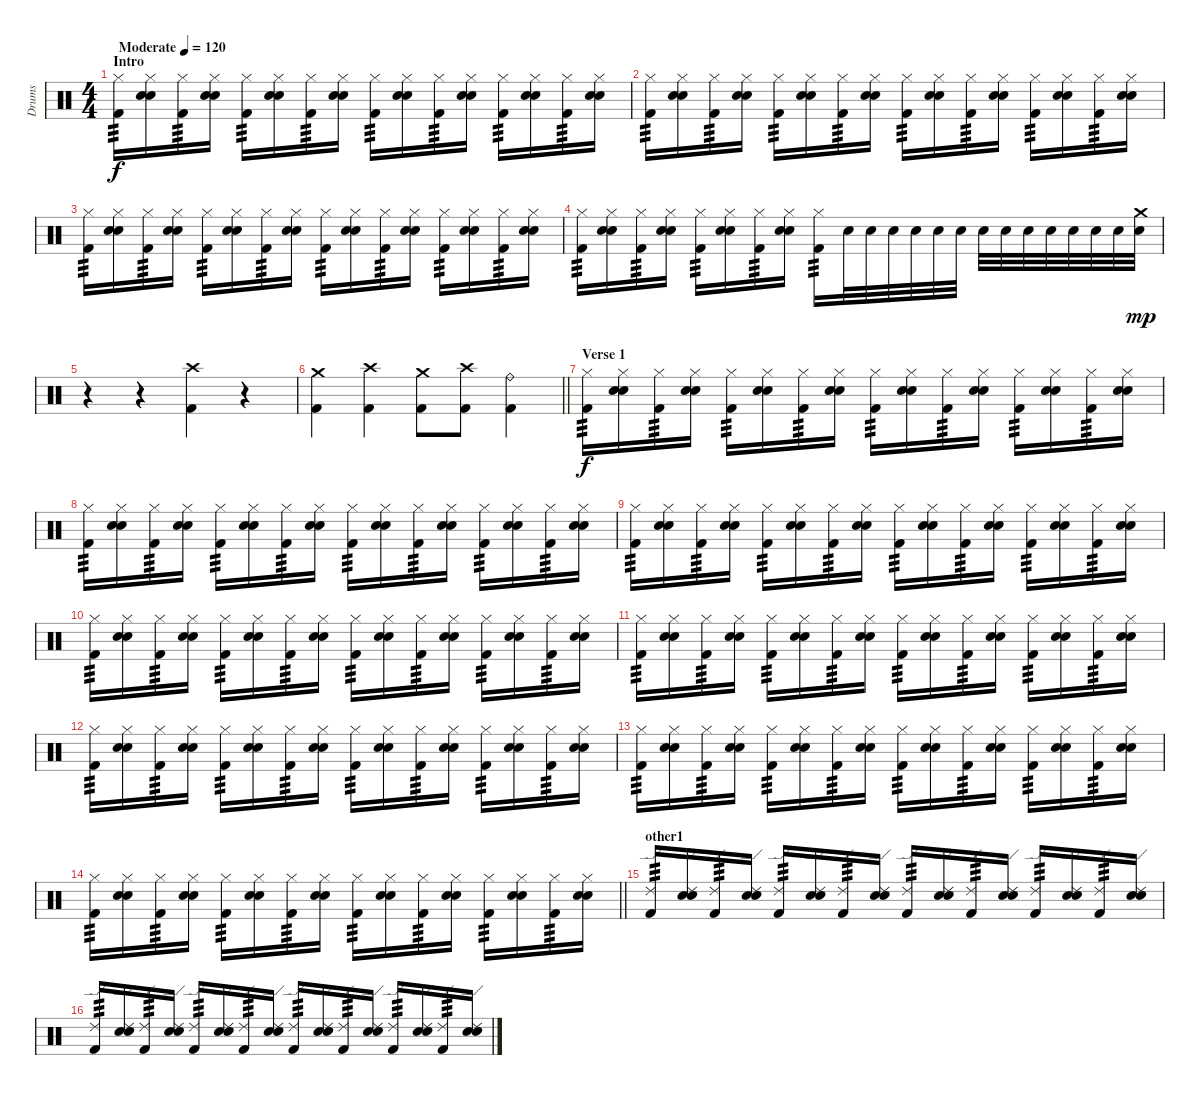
\track ("Drums" "Drums") {instrument percussion}
\staff {score}
\articulation defaults
\ts (4 4)
\section ("" "Intro")
\tempo (120 "Moderate")
\clef neutral
\ks c
("Hi-Hat (closed)" "Kick (hit) 2").16{tp 3 dy f} ("Hi-Hat (closed)" "Snare (hit) 2" "Electric Snare (hit)").16 ("Hi-Hat (closed)" "Kick (hit) 2").16{tp 3} ("Hi-Hat (closed)" "Snare (hit) 2" "Electric Snare (hit)").16 ("Hi-Hat (closed)" "Kick (hit) 2").16{tp 3} ("Hi-Hat (closed)" "Snare (hit) 2" "Electric Snare (hit)").16 ("Hi-Hat (closed)" "Kick (hit) 2").16{tp 3} ("Hi-Hat (closed)" "Snare (hit) 2" "Electric Snare (hit)").16 ("Hi-Hat (closed)" "Kick (hit) 2").16{tp 3} ("Hi-Hat (closed)" "Snare (hit) 2" "Electric Snare (hit)").16 ("Hi-Hat (closed)" "Kick (hit) 2").16{tp 3} ("Hi-Hat (closed)" "Snare (hit) 2" "Electric Snare (hit)").16 ("Hi-Hat (closed)" "Kick (hit) 2").16{tp 3} ("Hi-Hat (closed)" "Snare (hit) 2" "Electric Snare (hit)").16 ("Hi-Hat (closed)" "Kick (hit) 2").16{tp 3} ("Hi-Hat (closed)" "Snare (hit) 2" "Electric Snare (hit)").16 |
("Hi-Hat (closed)" "Kick (hit) 2").16{tp 3} ("Hi-Hat (closed)" "Snare (hit) 2" "Electric Snare (hit)").16 ("Hi-Hat (closed)" "Kick (hit) 2").16{tp 3} ("Hi-Hat (closed)" "Snare (hit) 2" "Electric Snare (hit)").16 ("Hi-Hat (closed)" "Kick (hit) 2").16{tp 3} ("Hi-Hat (closed)" "Snare (hit) 2" "Electric Snare (hit)").16 ("Hi-Hat (closed)" "Kick (hit) 2").16{tp 3} ("Hi-Hat (closed)" "Snare (hit) 2" "Electric Snare (hit)").16 ("Hi-Hat (closed)" "Kick (hit) 2").16{tp 3} ("Hi-Hat (closed)" "Snare (hit) 2" "Electric Snare (hit)").16 ("Hi-Hat (closed)" "Kick (hit) 2").16{tp 3} ("Hi-Hat (closed)" "Snare (hit) 2" "Electric Snare (hit)").16 ("Hi-Hat (closed)" "Kick (hit) 2").16{tp 3} ("Hi-Hat (closed)" "Snare (hit) 2" "Electric Snare (hit)").16 ("Hi-Hat (closed)" "Kick (hit) 2").16{tp 3} ("Hi-Hat (closed)" "Snare (hit) 2" "Electric Snare (hit)").16 |
("Hi-Hat (closed)" "Kick (hit) 2").16{tp 3} ("Hi-Hat (closed)" "Snare (hit) 2" "Electric Snare (hit)").16 ("Hi-Hat (closed)" "Kick (hit) 2").16{tp 3} ("Hi-Hat (closed)" "Snare (hit) 2" "Electric Snare (hit)").16 ("Hi-Hat (closed)" "Kick (hit) 2").16{tp 3} ("Hi-Hat (closed)" "Snare (hit) 2" "Electric Snare (hit)").16 ("Hi-Hat (closed)" "Kick (hit) 2").16{tp 3} ("Hi-Hat (closed)" "Snare (hit) 2" "Electric Snare (hit)").16 ("Hi-Hat (closed)" "Kick (hit) 2").16{tp 3} ("Hi-Hat (closed)" "Snare (hit) 2" "Electric Snare (hit)").16 ("Hi-Hat (closed)" "Kick (hit) 2").16{tp 3} ("Hi-Hat (closed)" "Snare (hit) 2" "Electric Snare (hit)").16 ("Hi-Hat (closed)" "Kick (hit) 2").16{tp 3} ("Hi-Hat (closed)" "Snare (hit) 2" "Electric Snare (hit)").16 ("Hi-Hat (closed)" "Kick (hit) 2").16{tp 3} ("Hi-Hat (closed)" "Snare (hit) 2" "Electric Snare (hit)").16 |
("Hi-Hat (closed)" "Kick (hit) 2").16{tp 3} ("Hi-Hat (closed)" "Snare (hit) 2" "Electric Snare (hit)").16 ("Hi-Hat (closed)" "Kick (hit) 2").16{tp 3} ("Hi-Hat (closed)" "Snare (hit) 2" "Electric Snare (hit)").16 ("Hi-Hat (closed)" "Kick (hit) 2").16{tp 3} ("Hi-Hat (closed)" "Snare (hit) 2" "Electric Snare (hit)").16 ("Hi-Hat (closed)" "Kick (hit) 2").16{tp 3} ("Hi-Hat (closed)" "Snare (hit) 2" "Electric Snare (hit)").16 ("Hi-Hat (closed)" "Kick (hit) 2").16{tp 3} "Electric Snare (hit)".32 "Electric Snare (hit)".32 "Electric Snare (hit)".32 "Electric Snare (hit)".32 "Electric Snare (hit)".32 "Electric Snare (hit)".32 "Electric Snare (hit)".32 "Electric Snare (hit)".32 "Electric Snare (hit)".32 "Electric Snare (hit)".32 "Electric Snare (hit)".32 "Electric Snare (hit)".32 "Electric Snare (hit)".32 ("Crash medium (hit)" "Electric Snare (hit)").32{dy mp} |
r.4 r.4 ("Crash high (hit)" "Kick (hit) 2").4 r.4 |
\barLineRight lightlight
("Crash medium (hit)" "Kick (hit) 2").4 ("Crash high (hit)" "Kick (hit) 2").4 ("Crash medium (hit)" "Kick (hit) 2").8 ("Crash high (hit)" "Kick (hit) 2").8 ("Ride (bell)" "Kick (hit) 2").4 |
\section ("" "Verse 1")
("Hi-Hat (closed)" "Kick (hit) 2").16{tp 3 dy f} ("Hi-Hat (closed)" "Snare (hit) 2" "Electric Snare (hit)").16 ("Hi-Hat (closed)" "Kick (hit) 2").16{tp 3} ("Hi-Hat (closed)" "Snare (hit) 2" "Electric Snare (hit)").16 ("Hi-Hat (closed)" "Kick (hit) 2").16{tp 3} ("Hi-Hat (closed)" "Snare (hit) 2" "Electric Snare (hit)").16 ("Hi-Hat (closed)" "Kick (hit) 2").16{tp 3} ("Hi-Hat (closed)" "Snare (hit) 2" "Electric Snare (hit)").16 ("Hi-Hat (closed)" "Kick (hit) 2").16{tp 3} ("Hi-Hat (closed)" "Snare (hit) 2" "Electric Snare (hit)").16 ("Hi-Hat (closed)" "Kick (hit) 2").16{tp 3} ("Hi-Hat (closed)" "Snare (hit) 2" "Electric Snare (hit)").16 ("Hi-Hat (closed)" "Kick (hit) 2").16{tp 3} ("Hi-Hat (closed)" "Snare (hit) 2" "Electric Snare (hit)").16 ("Hi-Hat (closed)" "Kick (hit) 2").16{tp 3} ("Hi-Hat (closed)" "Snare (hit) 2" "Electric Snare (hit)").16 |
("Hi-Hat (closed)" "Kick (hit) 2").16{tp 3} ("Hi-Hat (closed)" "Snare (hit) 2" "Electric Snare (hit)").16 ("Hi-Hat (closed)" "Kick (hit) 2").16{tp 3} ("Hi-Hat (closed)" "Snare (hit) 2" "Electric Snare (hit)").16 ("Hi-Hat (closed)" "Kick (hit) 2").16{tp 3} ("Hi-Hat (closed)" "Snare (hit) 2" "Electric Snare (hit)").16 ("Hi-Hat (closed)" "Kick (hit) 2").16{tp 3} ("Hi-Hat (closed)" "Snare (hit) 2" "Electric Snare (hit)").16 ("Hi-Hat (closed)" "Kick (hit) 2").16{tp 3} ("Hi-Hat (closed)" "Snare (hit) 2" "Electric Snare (hit)").16 ("Hi-Hat (closed)" "Kick (hit) 2").16{tp 3} ("Hi-Hat (closed)" "Snare (hit) 2" "Electric Snare (hit)").16 ("Hi-Hat (closed)" "Kick (hit) 2").16{tp 3} ("Hi-Hat (closed)" "Snare (hit) 2" "Electric Snare (hit)").16 ("Hi-Hat (closed)" "Kick (hit) 2").16{tp 3} ("Hi-Hat (closed)" "Snare (hit) 2" "Electric Snare (hit)").16 |
("Hi-Hat (closed)" "Kick (hit) 2").16{tp 3} ("Hi-Hat (closed)" "Snare (hit) 2" "Electric Snare (hit)").16 ("Hi-Hat (closed)" "Kick (hit) 2").16{tp 3} ("Hi-Hat (closed)" "Snare (hit) 2" "Electric Snare (hit)").16 ("Hi-Hat (closed)" "Kick (hit) 2").16{tp 3} ("Hi-Hat (closed)" "Snare (hit) 2" "Electric Snare (hit)").16 ("Hi-Hat (closed)" "Kick (hit) 2").16{tp 3} ("Hi-Hat (closed)" "Snare (hit) 2" "Electric Snare (hit)").16 ("Hi-Hat (closed)" "Kick (hit) 2").16{tp 3} ("Hi-Hat (closed)" "Snare (hit) 2" "Electric Snare (hit)").16 ("Hi-Hat (closed)" "Kick (hit) 2").16{tp 3} ("Hi-Hat (closed)" "Snare (hit) 2" "Electric Snare (hit)").16 ("Hi-Hat (closed)" "Kick (hit) 2").16{tp 3} ("Hi-Hat (closed)" "Snare (hit) 2" "Electric Snare (hit)").16 ("Hi-Hat (closed)" "Kick (hit) 2").16{tp 3} ("Hi-Hat (closed)" "Snare (hit) 2" "Electric Snare (hit)").16 |
("Hi-Hat (closed)" "Kick (hit) 2").16{tp 3} ("Hi-Hat (closed)" "Snare (hit) 2" "Electric Snare (hit)").16 ("Hi-Hat (closed)" "Kick (hit) 2").16{tp 3} ("Hi-Hat (closed)" "Snare (hit) 2" "Electric Snare (hit)").16 ("Hi-Hat (closed)" "Kick (hit) 2").16{tp 3} ("Hi-Hat (closed)" "Snare (hit) 2" "Electric Snare (hit)").16 ("Hi-Hat (closed)" "Kick (hit) 2").16{tp 3} ("Hi-Hat (closed)" "Snare (hit) 2" "Electric Snare (hit)").16 ("Hi-Hat (closed)" "Kick (hit) 2").16{tp 3} ("Hi-Hat (closed)" "Snare (hit) 2" "Electric Snare (hit)").16 ("Hi-Hat (closed)" "Kick (hit) 2").16{tp 3} ("Hi-Hat (closed)" "Snare (hit) 2" "Electric Snare (hit)").16 ("Hi-Hat (closed)" "Kick (hit) 2").16{tp 3} ("Hi-Hat (closed)" "Snare (hit) 2" "Electric Snare (hit)").16 ("Hi-Hat (closed)" "Kick (hit) 2").16{tp 3} ("Hi-Hat (closed)" "Snare (hit) 2" "Electric Snare (hit)").16 |
("Hi-Hat (closed)" "Kick (hit) 2").16{tp 3} ("Hi-Hat (closed)" "Snare (hit) 2" "Electric Snare (hit)").16 ("Hi-Hat (closed)" "Kick (hit) 2").16{tp 3} ("Hi-Hat (closed)" "Snare (hit) 2" "Electric Snare (hit)").16 ("Hi-Hat (closed)" "Kick (hit) 2").16{tp 3} ("Hi-Hat (closed)" "Snare (hit) 2" "Electric Snare (hit)").16 ("Hi-Hat (closed)" "Kick (hit) 2").16{tp 3} ("Hi-Hat (closed)" "Snare (hit) 2" "Electric Snare (hit)").16 ("Hi-Hat (closed)" "Kick (hit) 2").16{tp 3} ("Hi-Hat (closed)" "Snare (hit) 2" "Electric Snare (hit)").16 ("Hi-Hat (closed)" "Kick (hit) 2").16{tp 3} ("Hi-Hat (closed)" "Snare (hit) 2" "Electric Snare (hit)").16 ("Hi-Hat (closed)" "Kick (hit) 2").16{tp 3} ("Hi-Hat (closed)" "Snare (hit) 2" "Electric Snare (hit)").16 ("Hi-Hat (closed)" "Kick (hit) 2").16{tp 3} ("Hi-Hat (closed)" "Snare (hit) 2" "Electric Snare (hit)").16 |
("Hi-Hat (closed)" "Kick (hit) 2").16{tp 3} ("Hi-Hat (closed)" "Snare (hit) 2" "Electric Snare (hit)").16 ("Hi-Hat (closed)" "Kick (hit) 2").16{tp 3} ("Hi-Hat (closed)" "Snare (hit) 2" "Electric Snare (hit)").16 ("Hi-Hat (closed)" "Kick (hit) 2").16{tp 3} ("Hi-Hat (closed)" "Snare (hit) 2" "Electric Snare (hit)").16 ("Hi-Hat (closed)" "Kick (hit) 2").16{tp 3} ("Hi-Hat (closed)" "Snare (hit) 2" "Electric Snare (hit)").16 ("Hi-Hat (closed)" "Kick (hit) 2").16{tp 3} ("Hi-Hat (closed)" "Snare (hit) 2" "Electric Snare (hit)").16 ("Hi-Hat (closed)" "Kick (hit) 2").16{tp 3} ("Hi-Hat (closed)" "Snare (hit) 2" "Electric Snare (hit)").16 ("Hi-Hat (closed)" "Kick (hit) 2").16{tp 3} ("Hi-Hat (closed)" "Snare (hit) 2" "Electric Snare (hit)").16 ("Hi-Hat (closed)" "Kick (hit) 2").16{tp 3} ("Hi-Hat (closed)" "Snare (hit) 2" "Electric Snare (hit)").16 |
("Hi-Hat (closed)" "Kick (hit) 2").16{tp 3} ("Hi-Hat (closed)" "Snare (hit) 2" "Electric Snare (hit)").16 ("Hi-Hat (closed)" "Kick (hit) 2").16{tp 3} ("Hi-Hat (closed)" "Snare (hit) 2" "Electric Snare (hit)").16 ("Hi-Hat (closed)" "Kick (hit) 2").16{tp 3} ("Hi-Hat (closed)" "Snare (hit) 2" "Electric Snare (hit)").16 ("Hi-Hat (closed)" "Kick (hit) 2").16{tp 3} ("Hi-Hat (closed)" "Snare (hit) 2" "Electric Snare (hit)").16 ("Hi-Hat (closed)" "Kick (hit) 2").16{tp 3} ("Hi-Hat (closed)" "Snare (hit) 2" "Electric Snare (hit)").16 ("Hi-Hat (closed)" "Kick (hit) 2").16{tp 3} ("Hi-Hat (closed)" "Snare (hit) 2" "Electric Snare (hit)").16 ("Hi-Hat (closed)" "Kick (hit) 2").16{tp 3} ("Hi-Hat (closed)" "Snare (hit) 2" "Electric Snare (hit)").16 ("Hi-Hat (closed)" "Kick (hit) 2").16{tp 3} ("Hi-Hat (closed)" "Snare (hit) 2" "Electric Snare (hit)").16 |
\barLineRight lightlight
("Hi-Hat (closed)" "Kick (hit) 2").16{tp 3} ("Hi-Hat (closed)" "Snare (hit) 2" "Electric Snare (hit)").16 ("Hi-Hat (closed)" "Kick (hit) 2").16{tp 3} ("Hi-Hat (closed)" "Snare (hit) 2" "Electric Snare (hit)").16 ("Hi-Hat (closed)" "Kick (hit) 2").16{tp 3} ("Hi-Hat (closed)" "Snare (hit) 2" "Electric Snare (hit)").16 ("Hi-Hat (closed)" "Kick (hit) 2").16{tp 3} ("Hi-Hat (closed)" "Snare (hit) 2" "Electric Snare (hit)").16 ("Hi-Hat (closed)" "Kick (hit) 2").16{tp 3} ("Hi-Hat (closed)" "Snare (hit) 2" "Electric Snare (hit)").16 ("Hi-Hat (closed)" "Kick (hit) 2").16{tp 3} ("Hi-Hat (closed)" "Snare (hit) 2" "Electric Snare (hit)").16 ("Hi-Hat (closed)" "Kick (hit) 2").16{tp 3} ("Hi-Hat (closed)" "Snare (hit) 2" "Electric Snare (hit)").16 ("Hi-Hat (closed)" "Kick (hit) 2").16{tp 3} ("Hi-Hat (closed)" "Snare (hit) 2" "Electric Snare (hit)").16 |
\section ("" "other1")
("Ride (edge) 2" "Kick (hit) 2").16{tp 3} ("Ride (edge) 2" "Snare (hit) 2" "Electric Snare (hit)").16 ("Ride (edge) 2" "Kick (hit) 2").16{tp 3} ("Ride (edge) 2" "Snare (hit) 2" "Electric Snare (hit)").16 ("Ride (edge) 2" "Kick (hit) 2").16{tp 3} ("Ride (edge) 2" "Snare (hit) 2" "Electric Snare (hit)").16 ("Ride (edge) 2" "Kick (hit) 2").16{tp 3} ("Ride (edge) 2" "Snare (hit) 2" "Electric Snare (hit)").16 ("Ride (edge) 2" "Kick (hit) 2").16{tp 3} ("Ride (edge) 2" "Snare (hit) 2" "Electric Snare (hit)").16 ("Ride (edge) 2" "Kick (hit) 2").16{tp 3} ("Ride (edge) 2" "Snare (hit) 2" "Electric Snare (hit)").16 ("Ride (edge) 2" "Kick (hit) 2").16{tp 3} ("Ride (edge) 2" "Snare (hit) 2" "Electric Snare (hit)").16 ("Ride (edge) 2" "Kick (hit) 2").16{tp 3} ("Ride (edge) 2" "Snare (hit) 2" "Electric Snare (hit)").16 |
("Ride (edge) 2" "Kick (hit) 2").16{tp 3} ("Ride (edge) 2" "Snare (hit) 2" "Electric Snare (hit)").16 ("Ride (edge) 2" "Kick (hit) 2").16{tp 3} ("Ride (edge) 2" "Snare (hit) 2" "Electric Snare (hit)").16 ("Ride (edge) 2" "Kick (hit) 2").16{tp 3} ("Ride (edge) 2" "Snare (hit) 2" "Electric Snare (hit)").16 ("Ride (edge) 2" "Kick (hit) 2").16{tp 3} ("Ride (edge) 2" "Snare (hit) 2" "Electric Snare (hit)").16 ("Ride (edge) 2" "Kick (hit) 2").16{tp 3} ("Ride (edge) 2" "Snare (hit) 2" "Electric Snare (hit)").16 ("Ride (edge) 2" "Kick (hit) 2").16{tp 3} ("Ride (edge) 2" "Snare (hit) 2" "Electric Snare (hit)").16 ("Ride (edge) 2" "Kick (hit) 2").16{tp 3} ("Ride (edge) 2" "Snare (hit) 2" "Electric Snare (hit)").16 ("Ride (edge) 2" "Kick (hit) 2").16{tp 3} ("Ride (edge) 2" "Snare (hit) 2" "Electric Snare (hit)").16
